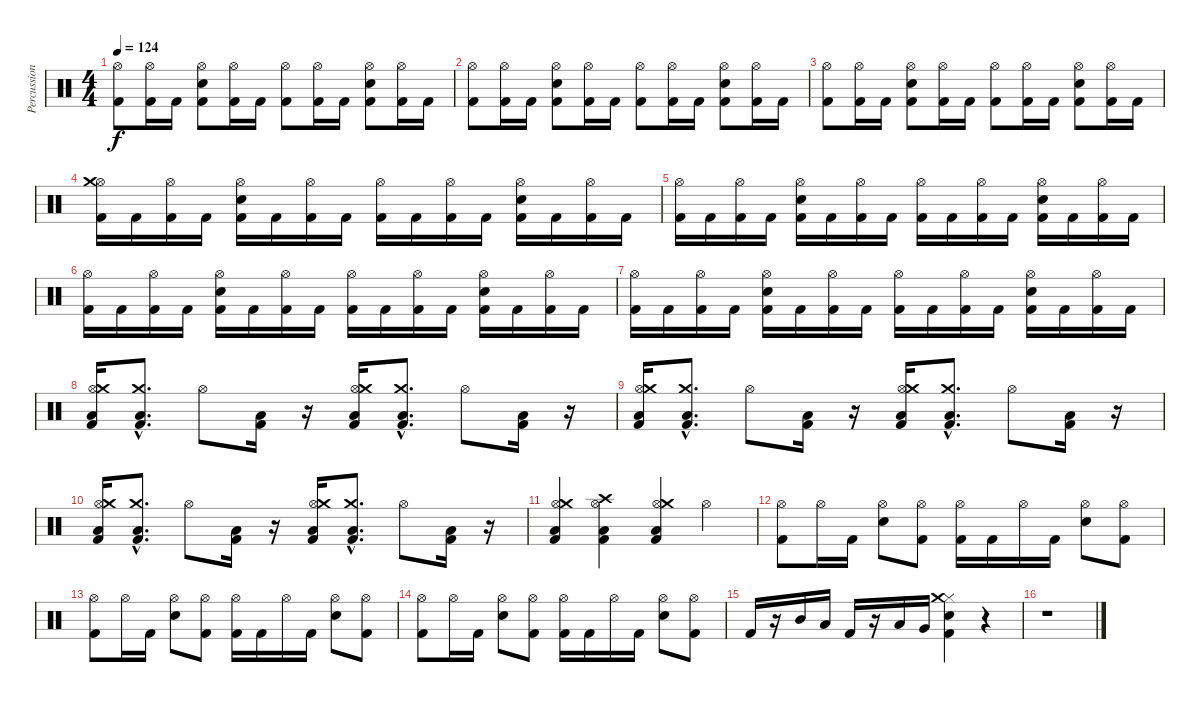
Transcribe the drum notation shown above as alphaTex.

\track ("Percussion" "Percussion") {instrument percussion}
\staff {score}
\articulation defaults
\ts (4 4)
\tempo 124
\clef neutral
\ks c
("Kick (hit) 2" "Hi-Hat (open)").8{dy f} ("Kick (hit) 2" "Hi-Hat (open)").16 "Kick (hit) 2".16 ("Kick (hit) 2" "Electric Snare (hit)" "Hi-Hat (open)").8 ("Kick (hit) 2" "Hi-Hat (open)").16 "Kick (hit) 2".16 ("Kick (hit) 2" "Hi-Hat (open)").8 ("Kick (hit) 2" "Hi-Hat (open)").16 "Kick (hit) 2".16 ("Kick (hit) 2" "Electric Snare (hit)" "Hi-Hat (open)").8 ("Kick (hit) 2" "Hi-Hat (open)").16 "Kick (hit) 2".16 |
("Kick (hit) 2" "Hi-Hat (open)").8 ("Kick (hit) 2" "Hi-Hat (open)").16 "Kick (hit) 2".16 ("Kick (hit) 2" "Electric Snare (hit)" "Hi-Hat (open)").8 ("Kick (hit) 2" "Hi-Hat (open)").16 "Kick (hit) 2".16 ("Kick (hit) 2" "Hi-Hat (open)").8 ("Kick (hit) 2" "Hi-Hat (open)").16 "Kick (hit) 2".16 ("Kick (hit) 2" "Electric Snare (hit)" "Hi-Hat (open)").8 ("Kick (hit) 2" "Hi-Hat (open)").16 "Kick (hit) 2".16 |
("Kick (hit) 2" "Hi-Hat (open)").8 ("Kick (hit) 2" "Hi-Hat (open)").16 "Kick (hit) 2".16 ("Kick (hit) 2" "Electric Snare (hit)" "Hi-Hat (open)").8 ("Kick (hit) 2" "Hi-Hat (open)").16 "Kick (hit) 2".16 ("Kick (hit) 2" "Hi-Hat (open)").8 ("Kick (hit) 2" "Hi-Hat (open)").16 "Kick (hit) 2".16 ("Kick (hit) 2" "Electric Snare (hit)" "Hi-Hat (open)").8 ("Kick (hit) 2" "Hi-Hat (open)").16 "Kick (hit) 2".16 |
("Kick (hit) 2" "Hi-Hat (open)" "Crash medium (hit)").16 "Kick (hit) 2".16 ("Kick (hit) 2" "Hi-Hat (open)").16 "Kick (hit) 2".16 ("Kick (hit) 2" "Electric Snare (hit)" "Hi-Hat (open)").16 "Kick (hit) 2".16 ("Kick (hit) 2" "Hi-Hat (open)").16 "Kick (hit) 2".16 ("Kick (hit) 2" "Hi-Hat (open)").16 "Kick (hit) 2".16 ("Kick (hit) 2" "Hi-Hat (open)").16 "Kick (hit) 2".16 ("Kick (hit) 2" "Electric Snare (hit)" "Hi-Hat (open)").16 "Kick (hit) 2".16 ("Kick (hit) 2" "Hi-Hat (open)").16 "Kick (hit) 2".16 |
("Kick (hit) 2" "Hi-Hat (open)").16 "Kick (hit) 2".16 ("Kick (hit) 2" "Hi-Hat (open)").16 "Kick (hit) 2".16 ("Kick (hit) 2" "Electric Snare (hit)" "Hi-Hat (open)").16 "Kick (hit) 2".16 ("Kick (hit) 2" "Hi-Hat (open)").16 "Kick (hit) 2".16 ("Kick (hit) 2" "Hi-Hat (open)").16 "Kick (hit) 2".16 ("Kick (hit) 2" "Hi-Hat (open)").16 "Kick (hit) 2".16 ("Kick (hit) 2" "Electric Snare (hit)" "Hi-Hat (open)").16 "Kick (hit) 2".16 ("Kick (hit) 2" "Hi-Hat (open)").16 "Kick (hit) 2".16 |
("Kick (hit) 2" "Hi-Hat (open)").16 "Kick (hit) 2".16 ("Kick (hit) 2" "Hi-Hat (open)").16 "Kick (hit) 2".16 ("Kick (hit) 2" "Electric Snare (hit)" "Hi-Hat (open)").16 "Kick (hit) 2".16 ("Kick (hit) 2" "Hi-Hat (open)").16 "Kick (hit) 2".16 ("Kick (hit) 2" "Hi-Hat (open)").16 "Kick (hit) 2".16 ("Kick (hit) 2" "Hi-Hat (open)").16 "Kick (hit) 2".16 ("Kick (hit) 2" "Electric Snare (hit)" "Hi-Hat (open)").16 "Kick (hit) 2".16 ("Kick (hit) 2" "Hi-Hat (open)").16 "Kick (hit) 2".16 |
("Kick (hit) 2" "Hi-Hat (open)").16 "Kick (hit) 2".16 ("Kick (hit) 2" "Hi-Hat (open)").16 "Kick (hit) 2".16 ("Kick (hit) 2" "Electric Snare (hit)" "Hi-Hat (open)").16 "Kick (hit) 2".16 ("Kick (hit) 2" "Hi-Hat (open)").16 "Kick (hit) 2".16 ("Kick (hit) 2" "Hi-Hat (open)").16 "Kick (hit) 2".16 ("Kick (hit) 2" "Hi-Hat (open)").16 "Kick (hit) 2".16 ("Kick (hit) 2" "Electric Snare (hit)" "Hi-Hat (open)").16 "Kick (hit) 2".16 ("Kick (hit) 2" "Hi-Hat (open)").16 "Kick (hit) 2".16 |
("Kick (hit) 2" "Low Floor Tom (hit)" "Hi-Hat (open)" "Crash medium (hit)").16 ("Kick (hit) 2" "Low Floor Tom (hit)" "Crash medium (hit)"{hac}).8{d} "Hi-Hat (open)".8 ("Kick (hit) 2" "Low Floor Tom (hit)").16 r.16 ("Kick (hit) 2" "Low Floor Tom (hit)" "Hi-Hat (open)" "Crash medium (hit)").16 ("Kick (hit) 2" "Low Floor Tom (hit)" "Crash medium (hit)"{hac}).8{d} "Hi-Hat (open)".8 ("Kick (hit) 2" "Low Floor Tom (hit)").16 r.16 |
("Kick (hit) 2" "Low Floor Tom (hit)" "Hi-Hat (open)" "Crash medium (hit)").16 ("Kick (hit) 2" "Low Floor Tom (hit)" "Crash medium (hit)"{hac}).8{d} "Hi-Hat (open)".8 ("Kick (hit) 2" "Low Floor Tom (hit)").16 r.16 ("Kick (hit) 2" "Low Floor Tom (hit)" "Hi-Hat (open)" "Crash medium (hit)").16 ("Kick (hit) 2" "Low Floor Tom (hit)" "Crash medium (hit)"{hac}).8{d} "Hi-Hat (open)".8 ("Kick (hit) 2" "Low Floor Tom (hit)").16 r.16 |
("Kick (hit) 2" "Low Floor Tom (hit)" "Hi-Hat (open)" "Crash medium (hit)").16 ("Kick (hit) 2" "Low Floor Tom (hit)" "Crash medium (hit)"{hac}).8{d} "Hi-Hat (open)".8 ("Kick (hit) 2" "Low Floor Tom (hit)").16 r.16 ("Kick (hit) 2" "Low Floor Tom (hit)" "Hi-Hat (open)" "Crash medium (hit)").16 ("Kick (hit) 2" "Low Floor Tom (hit)" "Crash medium (hit)"{hac}).8{d} "Hi-Hat (open)".8 ("Kick (hit) 2" "Low Floor Tom (hit)").16 r.16 |
("Kick (hit) 2" "Low Floor Tom (hit)" "Hi-Hat (open)" "Crash medium (hit)").4 ("Kick (hit) 2" "Low Floor Tom (hit)" "Hi-Hat (open)" "Crash high (hit)").4 ("Kick (hit) 2" "Low Floor Tom (hit)" "Hi-Hat (open)" "Crash medium (hit)").4 "Hi-Hat (open)".4 |
("Kick (hit) 2" "Hi-Hat (open)").8 "Hi-Hat (open)".16 "Kick (hit) 2".16 ("Electric Snare (hit)" "Hi-Hat (open)").8 ("Kick (hit) 2" "Hi-Hat (open)").8 ("Kick (hit) 2" "Hi-Hat (open)").16 "Kick (hit) 2".16 "Hi-Hat (open)".16 "Kick (hit) 2".16 ("Electric Snare (hit)" "Hi-Hat (open)").8 ("Kick (hit) 2" "Hi-Hat (open)").8 |
("Kick (hit) 2" "Hi-Hat (open)").8 "Hi-Hat (open)".16 "Kick (hit) 2".16 ("Electric Snare (hit)" "Hi-Hat (open)").8 ("Kick (hit) 2" "Hi-Hat (open)").8 ("Kick (hit) 2" "Hi-Hat (open)").16 "Kick (hit) 2".16 "Hi-Hat (open)".16 "Kick (hit) 2".16 ("Electric Snare (hit)" "Hi-Hat (open)").8 ("Kick (hit) 2" "Hi-Hat (open)").8 |
("Kick (hit) 2" "Hi-Hat (open)").8 "Hi-Hat (open)".16 "Kick (hit) 2".16 ("Electric Snare (hit)" "Hi-Hat (open)").8 ("Kick (hit) 2" "Hi-Hat (open)").8 ("Kick (hit) 2" "Hi-Hat (open)").16 "Kick (hit) 2".16 "Hi-Hat (open)".16 "Kick (hit) 2".16 ("Electric Snare (hit)" "Hi-Hat (open)").8 ("Kick (hit) 2" "Hi-Hat (open)").8 |
"Kick (hit) 2".16 r.16 "Mid Tom (hit)".16 "Low Tom (hit)".16 "Kick (hit) 2".16 r.16 "Low Tom (hit)".16 "Very Low Tom (hit)".16 ("Kick (hit) 2" "Electric Snare (hit)" "Hi-Hat (closed)" "Crash medium (hit)").4 r.4 |
r.1
